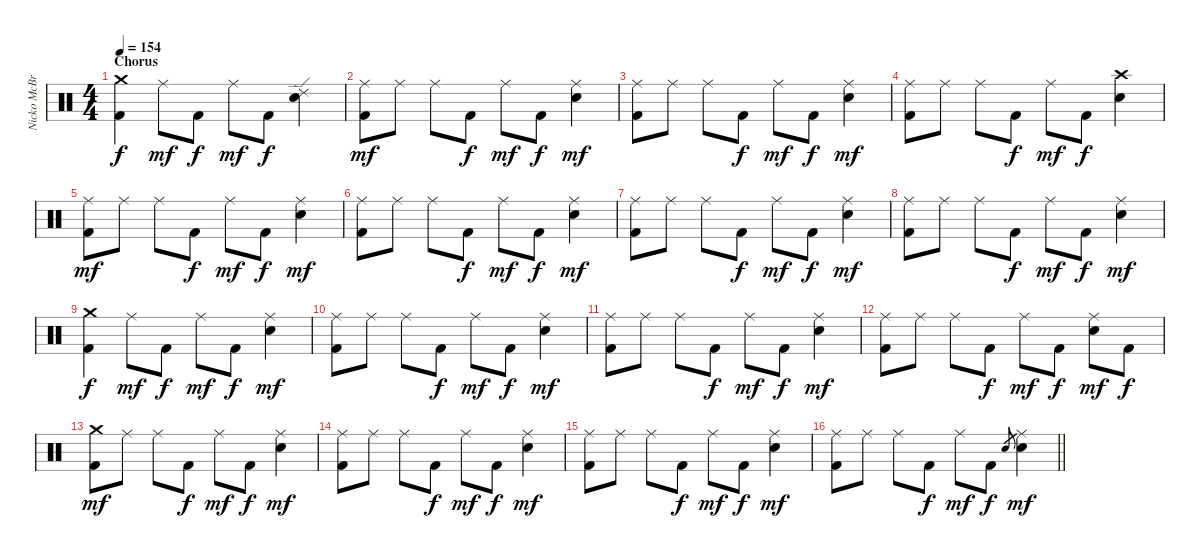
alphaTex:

\track ("Nicko McBrain" "Nicko McBr") {instrument percussion}
\staff {score}
\articulation defaults
\ts (4 4)
\section ("" "Chorus")
\tempo 154
\clef neutral
\ks c
("Crash medium (hit)" "Kick (hit) 2").4{dy f} "Ride (middle)".8{dy mf} "Kick (hit) 2".8{dy f} "Ride (middle)".8{dy mf} "Kick (hit) 2".8{dy f} ("Ride (edge) 2" "Electric Snare (hit)").4 |
("Ride (middle)" "Kick (hit) 2").8{dy mf} "Ride (middle)".8 "Ride (middle)".8 "Kick (hit) 2".8{dy f} "Ride (middle)".8{dy mf} "Kick (hit) 2".8{dy f} ("Ride (middle)" "Electric Snare (hit)").4{dy mf} |
("Ride (middle)" "Kick (hit) 2").8 "Ride (middle)".8 "Ride (middle)".8 "Kick (hit) 2".8{dy f} "Ride (middle)".8{dy mf} "Kick (hit) 2".8{dy f} ("Ride (middle)" "Electric Snare (hit)").4{dy mf} |
("Ride (middle)" "Kick (hit) 2").8 "Ride (middle)".8 "Ride (middle)".8 "Kick (hit) 2".8{dy f} "Ride (middle)".8{dy mf} "Kick (hit) 2".8{dy f} ("Crash high (hit)" "Electric Snare (hit)").4 |
("Ride (middle)" "Kick (hit) 2").8{dy mf} "Ride (middle)".8 "Ride (middle)".8 "Kick (hit) 2".8{dy f} "Ride (middle)".8{dy mf} "Kick (hit) 2".8{dy f} ("Ride (middle)" "Electric Snare (hit)").4{dy mf} |
("Ride (middle)" "Kick (hit) 2").8 "Ride (middle)".8 "Ride (middle)".8 "Kick (hit) 2".8{dy f} "Ride (middle)".8{dy mf} "Kick (hit) 2".8{dy f} ("Ride (middle)" "Electric Snare (hit)").4{dy mf} |
("Ride (middle)" "Kick (hit) 2").8 "Ride (middle)".8 "Ride (middle)".8 "Kick (hit) 2".8{dy f} "Ride (middle)".8{dy mf} "Kick (hit) 2".8{dy f} ("Ride (middle)" "Electric Snare (hit)").4{dy mf} |
("Ride (middle)" "Kick (hit) 2").8 "Ride (middle)".8 "Ride (middle)".8 "Kick (hit) 2".8{dy f} "Ride (middle)".8{dy mf} "Kick (hit) 2".8{dy f} ("Ride (middle)" "Electric Snare (hit)").4{dy mf} |
("Crash medium (hit)" "Kick (hit) 2").4{dy f} "Ride (middle)".8{dy mf} "Kick (hit) 2".8{dy f} "Ride (middle)".8{dy mf} "Kick (hit) 2".8{dy f} ("Ride (middle)" "Electric Snare (hit)").4{dy mf} |
("Ride (middle)" "Kick (hit) 2").8 "Ride (middle)".8 "Ride (middle)".8 "Kick (hit) 2".8{dy f} "Ride (middle)".8{dy mf} "Kick (hit) 2".8{dy f} ("Ride (middle)" "Electric Snare (hit)").4{dy mf} |
("Ride (middle)" "Kick (hit) 2").8 "Ride (middle)".8 "Ride (middle)".8 "Kick (hit) 2".8{dy f} "Ride (middle)".8{dy mf} "Kick (hit) 2".8{dy f} ("Ride (middle)" "Electric Snare (hit)").4{dy mf} |
("Ride (middle)" "Kick (hit) 2").8 "Ride (middle)".8 "Ride (middle)".8 "Kick (hit) 2".8{dy f} "Ride (middle)".8{dy mf} "Kick (hit) 2".8{dy f} ("Ride (middle)" "Electric Snare (hit)").8{dy mf} "Kick (hit) 2".8{dy f} |
("Crash medium (hit)" "Kick (hit) 2").8{dy mf} "Ride (middle)".8 "Ride (middle)".8 "Kick (hit) 2".8{dy f} "Ride (middle)".8{dy mf} "Kick (hit) 2".8{dy f} ("Ride (middle)" "Electric Snare (hit)").4{dy mf} |
("Ride (middle)" "Kick (hit) 2").8 "Ride (middle)".8 "Ride (middle)".8 "Kick (hit) 2".8{dy f} "Ride (middle)".8{dy mf} "Kick (hit) 2".8{dy f} ("Ride (middle)" "Electric Snare (hit)").4{dy mf} |
("Ride (middle)" "Kick (hit) 2").8 "Ride (middle)".8 "Ride (middle)".8 "Kick (hit) 2".8{dy f} "Ride (middle)".8{dy mf} "Kick (hit) 2".8{dy f} ("Ride (middle)" "Electric Snare (hit)").4{dy mf} |
\barLineRight lightlight
("Ride (middle)" "Kick (hit) 2").8 "Ride (middle)".8 "Ride (middle)".8 "Kick (hit) 2".8{dy f} "Ride (middle)".8{dy mf} "Kick (hit) 2".8{dy f} "Electric Snare (hit)".8{gr} ("Ride (middle)" "Electric Snare (hit)").4{dy mf}
